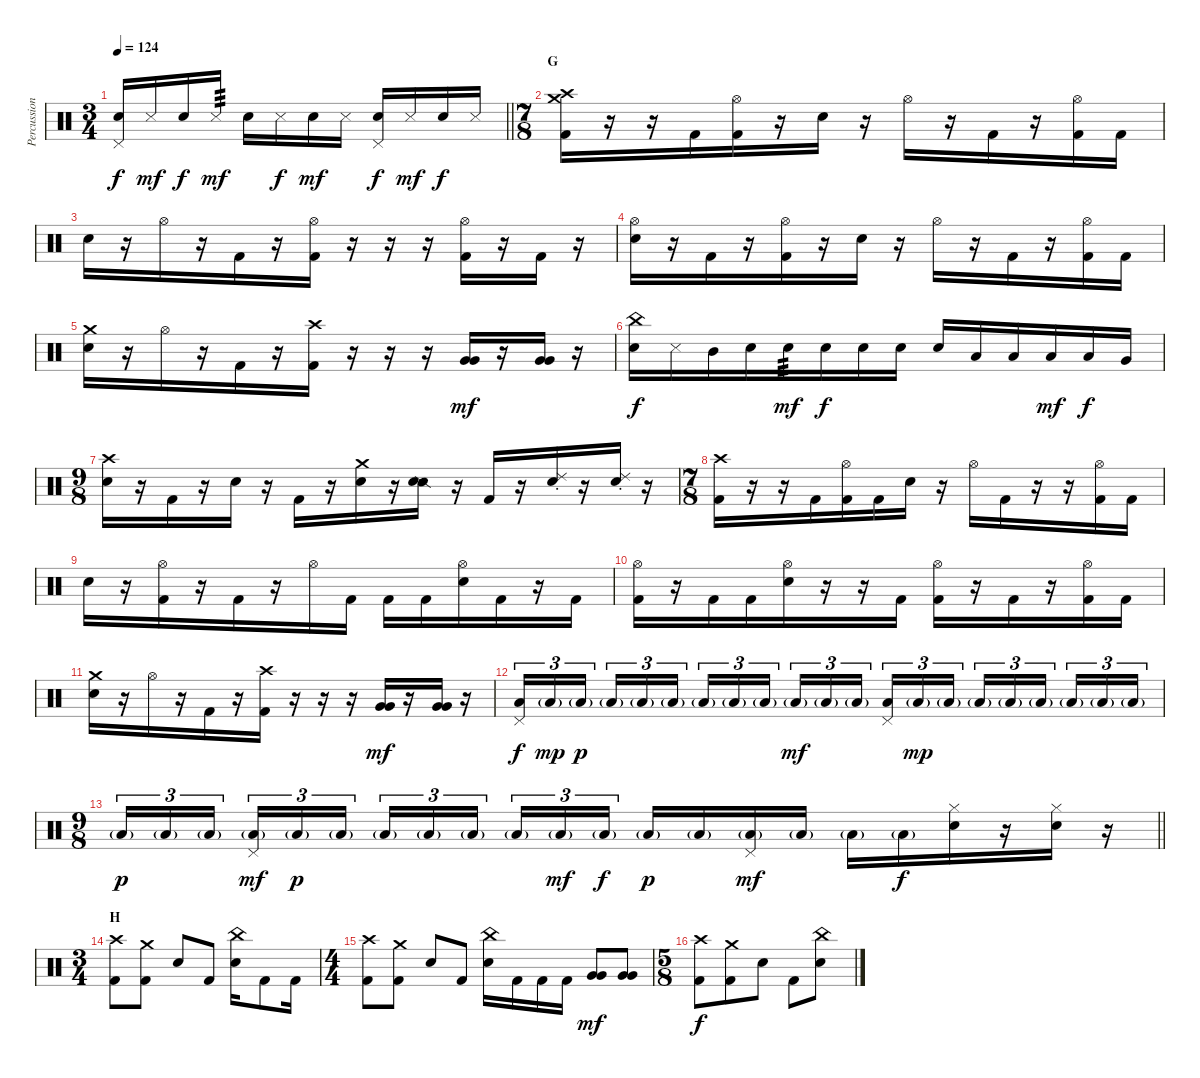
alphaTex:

\track ("Percussion" "Percussion") {instrument percussion}
\staff {score}
\articulation defaults
\ts (3 4)
\tempo 124
\clef neutral
\barLineRight lightlight
\ks c
("Pedal Hi-Hat (hit)" "Snare (hit) 2").16{dy f} "Metronome (hit)".16{dy mf} "Snare (hit) 2".16{dy f} "Metronome (hit)".16{tp 3 dy mf} "Snare (hit) 2".16 "Metronome (hit)".16{dy f} "Snare (hit) 2".16{dy mf} "Metronome (hit)".16 ("Pedal Hi-Hat (hit)" "Snare (hit) 2").16{dy f} "Metronome (hit)".16{dy mf} "Snare (hit) 2".16{dy f} "Metronome (hit)".16 |
\ts (7 8)
\section ("" "G")
("Crash medium (hit)" "Crash high (hit)" "Kick (hit) 2").16 r.16 r.16 "Kick (hit) 2".16 ("Hi-Hat (open)" "Kick (hit) 2").16 r.16 "Snare (hit) 2".16 r.16 "Hi-Hat (open)".16 r.16 "Kick (hit) 2".16 r.16 ("Hi-Hat (open)" "Kick (hit) 2").16 "Kick (hit) 2".16 |
"Snare (hit) 2".16 r.16 "Hi-Hat (open)".16 r.16 "Kick (hit) 2".16 r.16 ("Hi-Hat (open)" "Kick (hit) 2").16 r.16 r.16 r.16 ("Hi-Hat (open)" "Kick (hit) 2").16 r.16 "Kick (hit) 2".16 r.16 |
("Hi-Hat (open)" "Snare (hit) 2").16 r.16 "Kick (hit) 2".16 r.16 ("Hi-Hat (open)" "Kick (hit) 2").16 r.16 "Snare (hit) 2".16 r.16 "Hi-Hat (open)".16 r.16 "Kick (hit) 2".16 r.16 ("Hi-Hat (open)" "Kick (hit) 2").16 "Kick (hit) 2".16 |
("Crash medium (hit)" "Snare (hit) 2").16 r.16 "Hi-Hat (open)".16 r.16 "Kick (hit) 2".16 r.16 ("Crash high (hit)" "Kick (hit) 2").16 r.16 r.16 r.16 ("Very Low Tom (hit)" "Very Low Tom (hit)").16{bu 60 dy mf} r.16 ("Very Low Tom (hit)" "Very Low Tom (hit)").16{bu 60} r.16 |
("China (hit)" "Snare (hit) 2").16{dy f} "Metronome (hit)".16 "Mid Tom (hit)".16 "Snare (hit) 2".16 "Snare (hit) 2".16{tp 3 dy mf} "Snare (hit) 2".16{dy f} "Snare (hit) 2".16 "Snare (hit) 2".16 "Snare (hit) 2".16 "Low Tom (hit)".16 "Low Tom (hit)".16 "Low Tom (hit)".16{dy mf} "Low Tom (hit)".16{dy f} "Very Low Tom (hit)".16 |
\ts (9 8)
("Crash high (hit)" "Snare (hit) 2").16 r.16 "Kick (hit) 2".16 r.16 "Snare (hit)".16 r.16 "Kick (hit) 2".16 r.16 ("Crash medium (hit)" "Snare (hit) 2").16 r.16 ("Snare (side stick) 2" "Snare (hit) 2").16 r.16 "Kick (hit) 2".16 r.16 ("Ride (choke) 2" "Snare (hit) 2").16 r.16 ("Ride (choke) 2" "Snare (hit) 2").16 r.16 |
\ts (7 8)
("Crash high (hit)" "Kick (hit) 2").16 r.16 r.16 "Kick (hit) 2".16 ("Hi-Hat (open)" "Kick (hit) 2").16 "Kick (hit) 2".16 "Snare (hit) 2".16 r.16 "Hi-Hat (open)".16 "Kick (hit) 2".16 r.16 r.16 ("Hi-Hat (open)" "Kick (hit) 2").16 "Kick (hit) 2".16 |
"Snare (hit) 2".16 r.16 ("Hi-Hat (open)" "Kick (hit) 2").16 r.16 "Kick (hit) 2".16 r.16 "Hi-Hat (open)".16 "Kick (hit) 2".16 "Kick (hit) 2".16 "Kick (hit) 2".16 ("Hi-Hat (open)" "Snare (hit) 2").16 "Kick (hit) 2".16 r.16 "Kick (hit) 2".16 |
("Hi-Hat (open)" "Kick (hit) 2").16 r.16 "Kick (hit) 2".16 "Kick (hit) 2".16 ("Hi-Hat (open)" "Snare (hit) 2").16 r.16 r.16 "Kick (hit) 2".16 ("Hi-Hat (open)" "Kick (hit) 2").16 r.16 "Kick (hit) 2".16 r.16 ("Hi-Hat (open)" "Kick (hit) 2").16 "Kick (hit) 2".16 |
("Crash medium (hit)" "Snare (hit) 2").16 r.16 "Hi-Hat (open)".16 r.16 "Kick (hit) 2".16 r.16 ("Crash high (hit)" "Kick (hit) 2").16 r.16 r.16 r.16 ("Very Low Tom (hit)" "Very Low Tom (hit)").16{bu 60 dy mf} r.16 ("Very Low Tom (hit)" "Very Low Tom (hit)").16{bu 60} r.16 |
("Pedal Hi-Hat (hit)" "Low Tom (hit)").16{tu (3 2) dy f} "Low Tom (hit)"{g}.16{tu (3 2) dy mp} "Low Tom (hit)"{g}.16{tu (3 2) dy p} "Low Tom (hit)"{g}.16{tu (3 2)} "Low Tom (hit)"{g}.16{tu (3 2)} "Low Tom (hit)"{g}.16{tu (3 2)} "Low Tom (hit)"{g}.16{tu (3 2)} "Low Tom (hit)"{g}.16{tu (3 2)} "Low Tom (hit)"{g}.16{tu (3 2)} "Low Tom (hit)"{g}.16{tu (3 2) dy mf} "Low Tom (hit)"{g}.16{tu (3 2)} "Low Tom (hit)"{g}.16{tu (3 2)} ("Pedal Hi-Hat (hit)" "Low Tom (hit)").16{tu (3 2)} "Low Tom (hit)"{g}.16{tu (3 2) dy mp} "Low Tom (hit)"{g}.16{tu (3 2)} "Low Tom (hit)"{g}.16{tu (3 2)} "Low Tom (hit)"{g}.16{tu (3 2)} "Low Tom (hit)"{g}.16{tu (3 2)} "Low Tom (hit)"{g}.16{tu (3 2)} "Low Tom (hit)"{g}.16{tu (3 2)} "Low Tom (hit)"{g}.16{tu (3 2)} |
\ts (9 8)
\barLineRight lightlight "Low Tom (hit)"{g}.16{tu (3 2) dy p} "Low Tom (hit)"{g}.16{tu (3 2)} "Low Tom (hit)"{g}.16{tu (3 2) beam splitsecondary}
("Pedal Hi-Hat (hit)" "Low Tom (hit)"{g}).16{tu (3 2) dy mf} "Low Tom (hit)"{g}.16{tu (3 2) dy p} "Low Tom (hit)"{g}.16{tu (3 2) beam splitsecondary} "Low Tom (hit)"{g}.16{tu (3 2)} "Low Tom (hit)"{g}.16{tu (3 2)} "Low Tom (hit)"{g}.16{tu (3 2)} "Low Tom (hit)"{g}.16{tu (3 2)} "Low Tom (hit)"{g}.16{tu (3 2) dy mf} "Low Tom (hit)"{g}.16{tu (3 2) dy f beam splitsecondary} "Low Tom (hit)"{g}.16{dy p} "Low Tom (hit)"{g}.16 ("Pedal Hi-Hat (hit)" "Low Tom (hit)"{g}).16{dy mf} "Low Tom (hit)"{g}.16 "Low Tom (hit)"{g}.16 "Low Tom (hit)"{g}.16{dy f} ("Hi-Hat (closed)" "Snare (hit) 2").16 r.16 ("Hi-Hat (closed)" "Snare (hit) 2").16 r.16 |
\ts (3 4)
\section ("" "H")
("Crash high (hit)" "Kick (hit) 2").8 ("Crash medium (hit)" "Kick (hit) 2").8 "Snare (hit)".8 "Kick (hit) 2".8 ("China (hit)" "Snare (hit) 2").16 "Kick (hit) 2".8 "Kick (hit) 2".16 |
\ts (4 4)
("Crash high (hit)" "Kick (hit) 2").8 ("Crash medium (hit)" "Kick (hit) 2").8 "Snare (hit)".8 "Kick (hit) 2".8 ("China (hit)" "Snare (hit) 2").16 "Kick (hit) 2".16 "Kick (hit) 2".16 "Kick (hit) 2".16 ("Very Low Tom (hit)" "Very Low Tom (hit)").8{bu 60 dy mf} ("Very Low Tom (hit)" "Very Low Tom (hit)").8{bu 60} |
\ts (5 8)
("Crash high (hit)" "Kick (hit) 2").8{dy f} ("Crash medium (hit)" "Kick (hit) 2").8 "Snare (hit)".8 "Kick (hit) 2".8 ("China (hit)" "Snare (hit) 2").8
